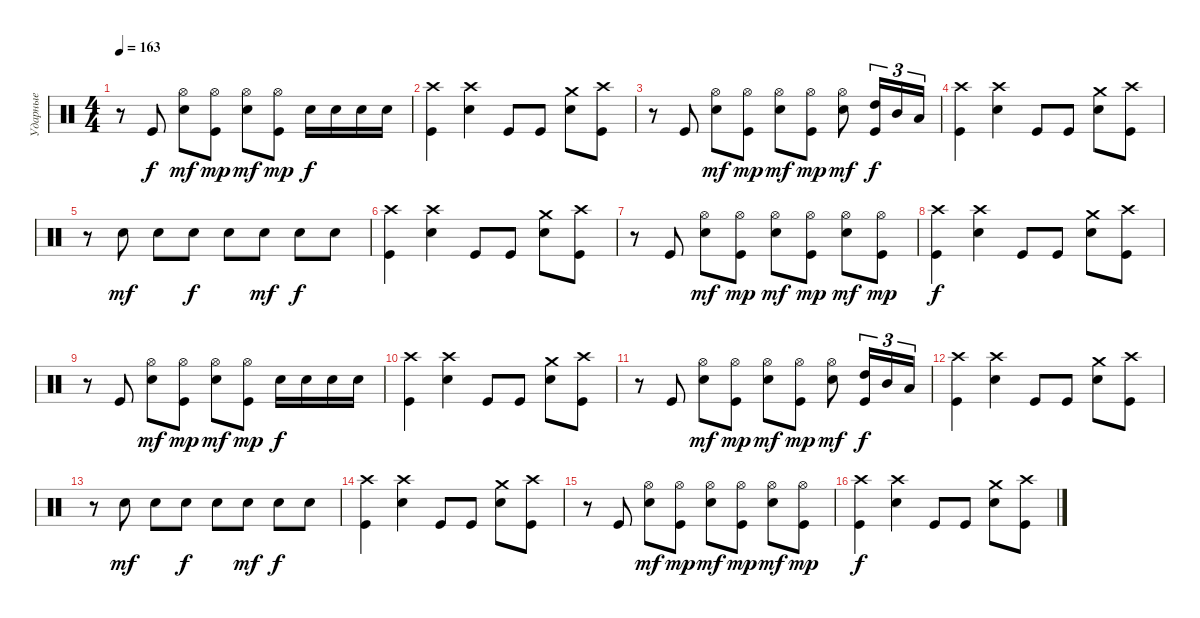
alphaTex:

\track ("Ударные" "Ударные") {instrument percussion}
\staff
\articulation defaults
\ts (4 4)
\tempo 163
\clef neutral
\ks c
r.8{dy f} "Kick (hit)".8 ("Hi-Hat (open)" "Snare (hit) 2").8{dy mf} ("Hi-Hat (open)" "Kick (hit)").8{dy mp} ("Hi-Hat (open)" "Snare (hit) 2").8{dy mf} ("Hi-Hat (open)" "Kick (hit)").8{dy mp} "Snare (hit) 2".16{dy f} "Snare (hit) 2".16 "Snare (hit) 2".16 "Snare (hit) 2".16 |
("Crash high (hit)" "Kick (hit)").4 ("Crash high (hit)" "Snare (hit) 2").4 "Kick (hit)".8 "Kick (hit)".8 ("Crash medium (hit)" "Snare (hit) 2").8 ("Crash high (hit)" "Kick (hit)").8 |
r.8 "Kick (hit)".8 ("Hi-Hat (open)" "Snare (hit) 2").8{dy mf} ("Hi-Hat (open)" "Kick (hit)").8{dy mp} ("Hi-Hat (open)" "Snare (hit) 2").8{dy mf} ("Hi-Hat (open)" "Kick (hit)").8{dy mp} ("Hi-Hat (open)" "Snare (hit) 2").8{dy mf} ("High Tom (hit)" "Kick (hit)").16{tu (3 2) dy f} "Mid Tom (hit)".16{tu (3 2)} "Low Tom (hit)".16{tu (3 2)} |
("Crash high (hit)" "Kick (hit)").4 ("Crash high (hit)" "Snare (hit) 2").4 "Kick (hit)".8 "Kick (hit)".8 ("Crash medium (hit)" "Snare (hit) 2").8 ("Crash high (hit)" "Kick (hit)").8 |
r.8 "Snare (hit) 2".8{dy mf} "Snare (hit) 2".8 "Snare (hit) 2".8{dy f} "Snare (hit) 2".8 "Snare (hit) 2".8{dy mf} "Snare (hit) 2".8{dy f} "Snare (hit) 2".8 |
("Crash high (hit)" "Kick (hit)").4 ("Crash high (hit)" "Snare (hit) 2").4 "Kick (hit)".8 "Kick (hit)".8 ("Crash medium (hit)" "Snare (hit) 2").8 ("Crash high (hit)" "Kick (hit)").8 |
r.8 "Kick (hit)".8 ("Hi-Hat (open)" "Snare (hit) 2").8{dy mf} ("Hi-Hat (open)" "Kick (hit)").8{dy mp} ("Hi-Hat (open)" "Snare (hit) 2").8{dy mf} ("Hi-Hat (open)" "Kick (hit)").8{dy mp} ("Hi-Hat (open)" "Snare (hit) 2").8{dy mf} ("Hi-Hat (open)" "Kick (hit)").8{dy mp} |
("Crash high (hit)" "Kick (hit)").4{dy f} ("Crash high (hit)" "Snare (hit) 2").4 "Kick (hit)".8 "Kick (hit)".8 ("Crash medium (hit)" "Snare (hit) 2").8 ("Crash high (hit)" "Kick (hit)").8 |
r.8 "Kick (hit)".8 ("Hi-Hat (open)" "Snare (hit) 2").8{dy mf} ("Hi-Hat (open)" "Kick (hit)").8{dy mp} ("Hi-Hat (open)" "Snare (hit) 2").8{dy mf} ("Hi-Hat (open)" "Kick (hit)").8{dy mp} "Snare (hit) 2".16{dy f} "Snare (hit) 2".16 "Snare (hit) 2".16 "Snare (hit) 2".16 |
("Crash high (hit)" "Kick (hit)").4 ("Crash high (hit)" "Snare (hit) 2").4 "Kick (hit)".8 "Kick (hit)".8 ("Crash medium (hit)" "Snare (hit) 2").8 ("Crash high (hit)" "Kick (hit)").8 |
r.8 "Kick (hit)".8 ("Hi-Hat (open)" "Snare (hit) 2").8{dy mf} ("Hi-Hat (open)" "Kick (hit)").8{dy mp} ("Hi-Hat (open)" "Snare (hit) 2").8{dy mf} ("Hi-Hat (open)" "Kick (hit)").8{dy mp} ("Hi-Hat (open)" "Snare (hit) 2").8{dy mf} ("High Tom (hit)" "Kick (hit)").16{tu (3 2) dy f} "Mid Tom (hit)".16{tu (3 2)} "Low Tom (hit)".16{tu (3 2)} |
("Crash high (hit)" "Kick (hit)").4 ("Crash high (hit)" "Snare (hit) 2").4 "Kick (hit)".8 "Kick (hit)".8 ("Crash medium (hit)" "Snare (hit) 2").8 ("Crash high (hit)" "Kick (hit)").8 |
r.8 "Snare (hit) 2".8{dy mf} "Snare (hit) 2".8 "Snare (hit) 2".8{dy f} "Snare (hit) 2".8 "Snare (hit) 2".8{dy mf} "Snare (hit) 2".8{dy f} "Snare (hit) 2".8 |
("Crash high (hit)" "Kick (hit)").4 ("Crash high (hit)" "Snare (hit) 2").4 "Kick (hit)".8 "Kick (hit)".8 ("Crash medium (hit)" "Snare (hit) 2").8 ("Crash high (hit)" "Kick (hit)").8 |
r.8 "Kick (hit)".8 ("Hi-Hat (open)" "Snare (hit) 2").8{dy mf} ("Hi-Hat (open)" "Kick (hit)").8{dy mp} ("Hi-Hat (open)" "Snare (hit) 2").8{dy mf} ("Hi-Hat (open)" "Kick (hit)").8{dy mp} ("Hi-Hat (open)" "Snare (hit) 2").8{dy mf} ("Hi-Hat (open)" "Kick (hit)").8{dy mp} |
("Crash high (hit)" "Kick (hit)").4{dy f} ("Crash high (hit)" "Snare (hit) 2").4 "Kick (hit)".8 "Kick (hit)".8 ("Crash medium (hit)" "Snare (hit) 2").8 ("Crash high (hit)" "Kick (hit)").8
